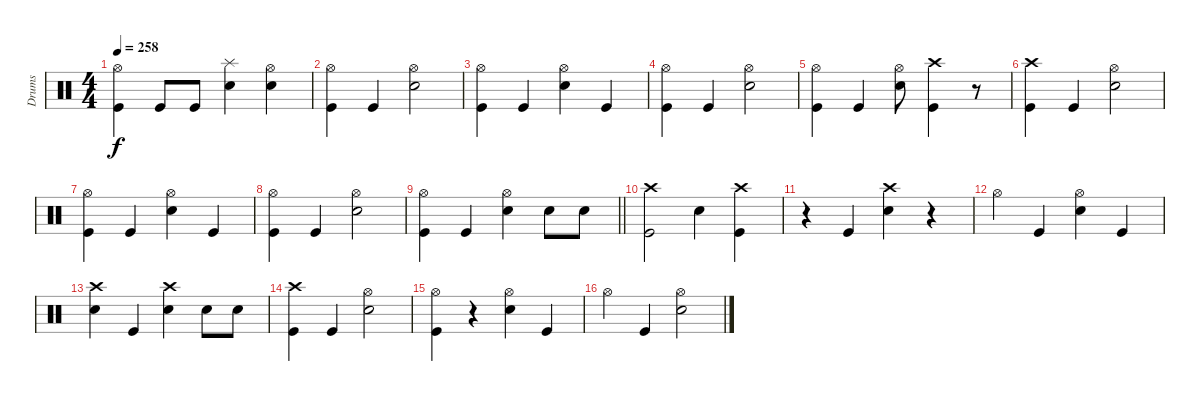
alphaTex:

\track ("Drums" "Drums") {instrument percussion}
\staff {score}
\articulation defaults
\ts (4 4)
\tempo 258
\clef neutral
\ks c
("Hi-Hat (open)" "Kick (hit)").4{dy f} "Kick (hit)".8 "Kick (hit)".8 ("Splash (hit)" "Electric Snare (hit)").4 ("Hi-Hat (open)" "Electric Snare (hit)").4 |
("Hi-Hat (open)" "Kick (hit)").4 "Kick (hit)".4 ("Hi-Hat (open)" "Electric Snare (hit)").2 |
("Hi-Hat (open)" "Kick (hit)").4 "Kick (hit)".4 ("Hi-Hat (open)" "Electric Snare (hit)").4 "Kick (hit)".4 |
("Hi-Hat (open)" "Kick (hit)").4 "Kick (hit)".4 ("Hi-Hat (open)" "Electric Snare (hit)").2 |
("Hi-Hat (open)" "Kick (hit)").4 "Kick (hit)".4 ("Hi-Hat (open)" "Electric Snare (hit)").8 ("Crash high (hit)" "Kick (hit)").4 r.8 |
("Crash high (hit)" "Kick (hit)").4 "Kick (hit)".4 ("Hi-Hat (open)" "Electric Snare (hit)").2 |
("Hi-Hat (open)" "Kick (hit)").4 "Kick (hit)".4 ("Hi-Hat (open)" "Electric Snare (hit)").4 "Kick (hit)".4 |
("Hi-Hat (open)" "Kick (hit)").4 "Kick (hit)".4 ("Hi-Hat (open)" "Electric Snare (hit)").2 |
\barLineRight lightlight
("Hi-Hat (open)" "Kick (hit)").4 "Kick (hit)".4 ("Hi-Hat (open)" "Electric Snare (hit)").4 "Electric Snare (hit)".8 "Electric Snare (hit)".8 |
\section ("" "")
("Crash high (hit)" "Kick (hit)").2 "Electric Snare (hit)".4 ("Crash high (hit)" "Kick (hit)").4 |
r.4 "Kick (hit)".4 ("Crash high (hit)" "Electric Snare (hit)").4 r.4 |
"Hi-Hat (open)".4 "Kick (hit)".4 ("Hi-Hat (open)" "Electric Snare (hit)").4 "Kick (hit)".4 |
("Crash high (hit)" "Electric Snare (hit)").4 "Kick (hit)".4 ("Crash high (hit)" "Electric Snare (hit)").4 "Electric Snare (hit)".8 "Electric Snare (hit)".8 |
("Crash high (hit)" "Kick (hit)").4 "Kick (hit)".4 ("Hi-Hat (open)" "Electric Snare (hit)").2 |
("Hi-Hat (open)" "Kick (hit)").4 r.4 ("Hi-Hat (open)" "Electric Snare (hit)").4 "Kick (hit)".4 |
"Hi-Hat (open)".4 "Kick (hit)".4 ("Hi-Hat (open)" "Electric Snare (hit)").2
